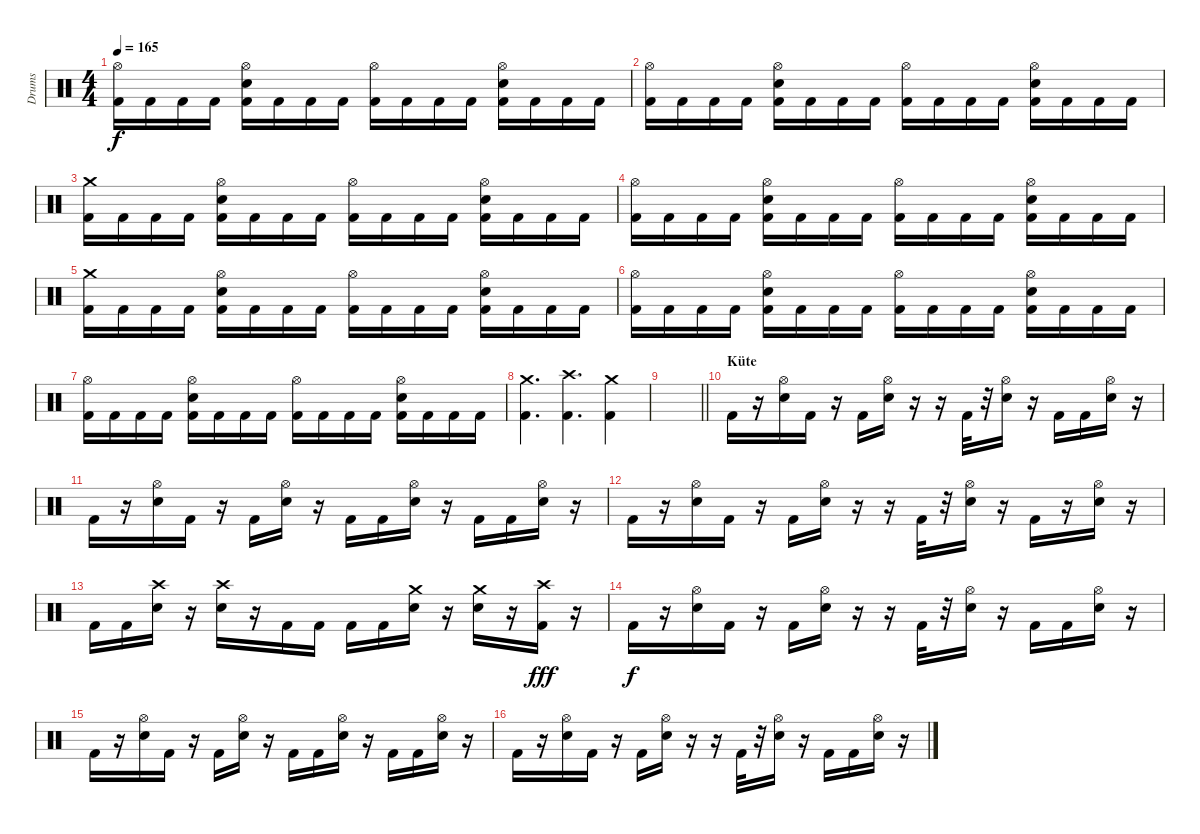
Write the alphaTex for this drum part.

\track ("Drums" "Drums") {instrument percussion}
\staff {score}
\articulation defaults
\ts (4 4)
\tempo 165
\clef neutral
\ks c
("Hi-Hat (open)" "Kick (hit) 2").16{dy f} "Kick (hit) 2".16 "Kick (hit) 2".16 "Kick (hit) 2".16 ("Hi-Hat (open)" "Electric Snare (hit)" "Kick (hit) 2").16 "Kick (hit) 2".16 "Kick (hit) 2".16 "Kick (hit) 2".16 ("Hi-Hat (open)" "Kick (hit) 2").16 "Kick (hit) 2".16 "Kick (hit) 2".16 "Kick (hit) 2".16 ("Hi-Hat (open)" "Electric Snare (hit)" "Kick (hit) 2").16 "Kick (hit) 2".16 "Kick (hit) 2".16 "Kick (hit) 2".16 |
("Hi-Hat (open)" "Kick (hit) 2").16 "Kick (hit) 2".16 "Kick (hit) 2".16 "Kick (hit) 2".16 ("Hi-Hat (open)" "Electric Snare (hit)" "Kick (hit) 2").16 "Kick (hit) 2".16 "Kick (hit) 2".16 "Kick (hit) 2".16 ("Hi-Hat (open)" "Kick (hit) 2").16 "Kick (hit) 2".16 "Kick (hit) 2".16 "Kick (hit) 2".16 ("Hi-Hat (open)" "Electric Snare (hit)" "Kick (hit) 2").16 "Kick (hit) 2".16 "Kick (hit) 2".16 "Kick (hit) 2".16 |
("Crash medium (hit)" "Kick (hit) 2").16 "Kick (hit) 2".16 "Kick (hit) 2".16 "Kick (hit) 2".16 ("Hi-Hat (open)" "Electric Snare (hit)" "Kick (hit) 2").16 "Kick (hit) 2".16 "Kick (hit) 2".16 "Kick (hit) 2".16 ("Hi-Hat (open)" "Kick (hit) 2").16 "Kick (hit) 2".16 "Kick (hit) 2".16 "Kick (hit) 2".16 ("Hi-Hat (open)" "Electric Snare (hit)" "Kick (hit) 2").16 "Kick (hit) 2".16 "Kick (hit) 2".16 "Kick (hit) 2".16 |
("Hi-Hat (open)" "Kick (hit) 2").16 "Kick (hit) 2".16 "Kick (hit) 2".16 "Kick (hit) 2".16 ("Hi-Hat (open)" "Electric Snare (hit)" "Kick (hit) 2").16 "Kick (hit) 2".16 "Kick (hit) 2".16 "Kick (hit) 2".16 ("Hi-Hat (open)" "Kick (hit) 2").16 "Kick (hit) 2".16 "Kick (hit) 2".16 "Kick (hit) 2".16 ("Hi-Hat (open)" "Electric Snare (hit)" "Kick (hit) 2").16 "Kick (hit) 2".16 "Kick (hit) 2".16 "Kick (hit) 2".16 |
("Crash medium (hit)" "Kick (hit) 2").16 "Kick (hit) 2".16 "Kick (hit) 2".16 "Kick (hit) 2".16 ("Hi-Hat (open)" "Electric Snare (hit)" "Kick (hit) 2").16 "Kick (hit) 2".16 "Kick (hit) 2".16 "Kick (hit) 2".16 ("Hi-Hat (open)" "Kick (hit) 2").16 "Kick (hit) 2".16 "Kick (hit) 2".16 "Kick (hit) 2".16 ("Hi-Hat (open)" "Electric Snare (hit)" "Kick (hit) 2").16 "Kick (hit) 2".16 "Kick (hit) 2".16 "Kick (hit) 2".16 |
("Hi-Hat (open)" "Kick (hit) 2").16 "Kick (hit) 2".16 "Kick (hit) 2".16 "Kick (hit) 2".16 ("Hi-Hat (open)" "Electric Snare (hit)" "Kick (hit) 2").16 "Kick (hit) 2".16 "Kick (hit) 2".16 "Kick (hit) 2".16 ("Hi-Hat (open)" "Kick (hit) 2").16 "Kick (hit) 2".16 "Kick (hit) 2".16 "Kick (hit) 2".16 ("Hi-Hat (open)" "Electric Snare (hit)" "Kick (hit) 2").16 "Kick (hit) 2".16 "Kick (hit) 2".16 "Kick (hit) 2".16 |
("Hi-Hat (open)" "Kick (hit) 2").16 "Kick (hit) 2".16 "Kick (hit) 2".16 "Kick (hit) 2".16 ("Hi-Hat (open)" "Electric Snare (hit)" "Kick (hit) 2").16 "Kick (hit) 2".16 "Kick (hit) 2".16 "Kick (hit) 2".16 ("Hi-Hat (open)" "Kick (hit) 2").16 "Kick (hit) 2".16 "Kick (hit) 2".16 "Kick (hit) 2".16 ("Hi-Hat (open)" "Electric Snare (hit)" "Kick (hit) 2").16 "Kick (hit) 2".16 "Kick (hit) 2".16 "Kick (hit) 2".16 |
("Crash medium (hit)" "Kick (hit) 2").4{d} ("Crash high (hit)" "Kick (hit) 2").4{d} ("Crash medium (hit)" "Kick (hit) 2").4 |
\barLineRight lightlight
|
\section ("" "Küte")
"Kick (hit) 2".16 r.16 ("Hi-Hat (open)" "Electric Snare (hit)").16 "Kick (hit) 2".16 r.16 "Kick (hit) 2".16 ("Hi-Hat (open)" "Electric Snare (hit)").16 r.16 r.16 "Kick (hit) 2".32 r.32 ("Hi-Hat (open)" "Electric Snare (hit)").16 r.16 "Kick (hit) 2".16 "Kick (hit) 2".16 ("Hi-Hat (open)" "Electric Snare (hit)").16 r.16 |
"Kick (hit) 2".16 r.16 ("Hi-Hat (open)" "Electric Snare (hit)").16 "Kick (hit) 2".16 r.16 "Kick (hit) 2".16 ("Hi-Hat (open)" "Electric Snare (hit)").16 r.16 "Kick (hit) 2".16 "Kick (hit) 2".16 ("Hi-Hat (open)" "Electric Snare (hit)").16 r.16 "Kick (hit) 2".16 "Kick (hit) 2".16 ("Hi-Hat (open)" "Electric Snare (hit)").16 r.16 |
"Kick (hit) 2".16 r.16 ("Hi-Hat (open)" "Electric Snare (hit)").16 "Kick (hit) 2".16 r.16 "Kick (hit) 2".16 ("Hi-Hat (open)" "Electric Snare (hit)").16 r.16 r.16 "Kick (hit) 2".32 r.32 ("Hi-Hat (open)" "Electric Snare (hit)").16 r.16 "Kick (hit) 2".16 r.16 ("Hi-Hat (open)" "Electric Snare (hit)").16 r.16 |
"Kick (hit) 2".16 "Kick (hit) 2".16 ("Crash high (hit)" "Electric Snare (hit)").16 r.16 ("Crash high (hit)" "Electric Snare (hit)").16 r.16 "Kick (hit) 2".16 "Kick (hit) 2".16 "Kick (hit) 2".16 "Kick (hit) 2".16 ("Crash medium (hit)" "Electric Snare (hit)").16 r.16 ("Crash medium (hit)" "Electric Snare (hit)").16 r.16 ("Crash high (hit)" "Kick (hit) 2").16{dy fff} r.16 |
"Kick (hit) 2".16{dy f} r.16 ("Hi-Hat (open)" "Electric Snare (hit)").16 "Kick (hit) 2".16 r.16 "Kick (hit) 2".16 ("Hi-Hat (open)" "Electric Snare (hit)").16 r.16 r.16 "Kick (hit) 2".32 r.32 ("Hi-Hat (open)" "Electric Snare (hit)").16 r.16 "Kick (hit) 2".16 "Kick (hit) 2".16 ("Hi-Hat (open)" "Electric Snare (hit)").16 r.16 |
"Kick (hit) 2".16 r.16 ("Hi-Hat (open)" "Electric Snare (hit)").16 "Kick (hit) 2".16 r.16 "Kick (hit) 2".16 ("Hi-Hat (open)" "Electric Snare (hit)").16 r.16 "Kick (hit) 2".16 "Kick (hit) 2".16 ("Hi-Hat (open)" "Electric Snare (hit)").16 r.16 "Kick (hit) 2".16 "Kick (hit) 2".16 ("Hi-Hat (open)" "Electric Snare (hit)").16 r.16 |
"Kick (hit) 2".16 r.16 ("Hi-Hat (open)" "Electric Snare (hit)").16 "Kick (hit) 2".16 r.16 "Kick (hit) 2".16 ("Hi-Hat (open)" "Electric Snare (hit)").16 r.16 r.16 "Kick (hit) 2".32 r.32 ("Hi-Hat (open)" "Electric Snare (hit)").16 r.16 "Kick (hit) 2".16 "Kick (hit) 2".16 ("Hi-Hat (open)" "Electric Snare (hit)").16 r.16
